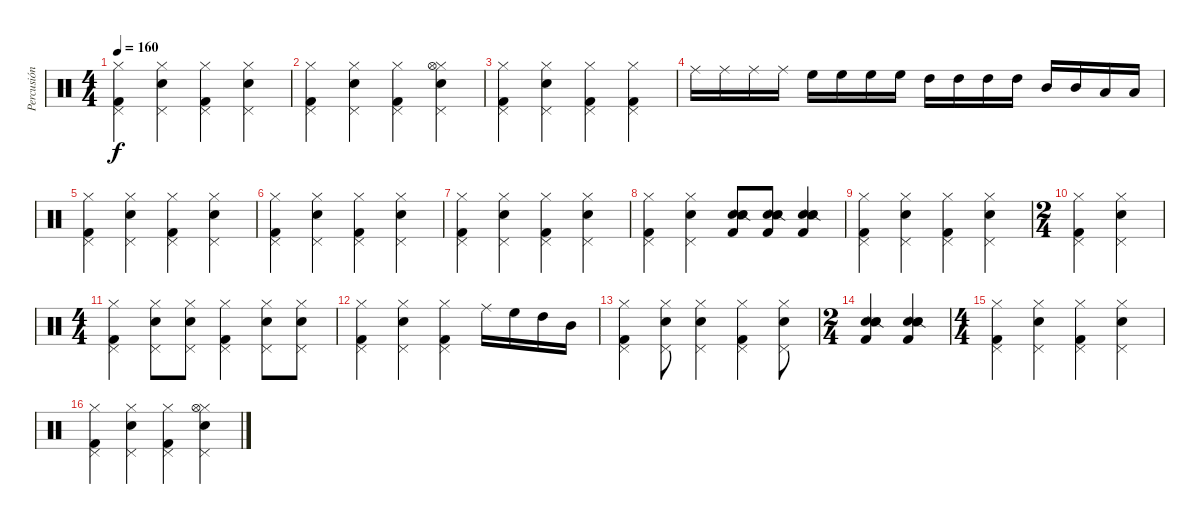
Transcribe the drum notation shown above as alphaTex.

\track ("Percusión" "Percusión") {instrument percussion}
\staff {score}
\articulation defaults
\ts (4 4)
\tempo 160
\clef neutral
\ks c
("Hi-Hat (closed)" "Kick (hit) 2" "Pedal Hi-Hat (hit)").4{dy f} ("Hi-Hat (closed)" "Snare (hit) 2" "Pedal Hi-Hat (hit)").4 ("Hi-Hat (closed)" "Kick (hit) 2" "Pedal Hi-Hat (hit)").4 ("Hi-Hat (closed)" "Snare (hit) 2" "Pedal Hi-Hat (hit)").4 |
("Hi-Hat (closed)" "Kick (hit) 2" "Pedal Hi-Hat (hit)").4 ("Hi-Hat (closed)" "Snare (hit) 2" "Pedal Hi-Hat (hit)").4 ("Hi-Hat (closed)" "Kick (hit) 2" "Pedal Hi-Hat (hit)").4 ("Hi-Hat (closed)" "Snare (hit) 2" "Pedal Hi-Hat (hit)" "Hi-Hat (open)").4 |
("Hi-Hat (closed)" "Kick (hit) 2" "Pedal Hi-Hat (hit)").4 ("Hi-Hat (closed)" "Snare (hit) 2" "Pedal Hi-Hat (hit)").4 ("Hi-Hat (closed)" "Kick (hit) 2" "Pedal Hi-Hat (hit)").4 ("Hi-Hat (closed)" "Kick (hit) 2" "Pedal Hi-Hat (hit)").4 |
"Ride (middle)".16 "Ride (middle)".16 "Ride (middle)".16 "Ride (middle)".16 "High Floor Tom (hit)".16 "High Floor Tom (hit)".16 "High Floor Tom (hit)".16 "High Floor Tom (hit)".16 "High Tom (hit)".16 "High Tom (hit)".16 "High Tom (hit)".16 "High Tom (hit)".16 "Mid Tom (hit)".16 "Mid Tom (hit)".16 "Low Tom (hit)".16 "Low Tom (hit)".16 |
("Hi-Hat (closed)" "Kick (hit) 2" "Pedal Hi-Hat (hit)").4 ("Hi-Hat (closed)" "Snare (hit) 2" "Pedal Hi-Hat (hit)").4 ("Hi-Hat (closed)" "Kick (hit) 2" "Pedal Hi-Hat (hit)").4 ("Hi-Hat (closed)" "Snare (hit) 2" "Pedal Hi-Hat (hit)").4 |
("Hi-Hat (closed)" "Kick (hit) 2" "Pedal Hi-Hat (hit)").4 ("Hi-Hat (closed)" "Snare (hit) 2" "Pedal Hi-Hat (hit)").4 ("Hi-Hat (closed)" "Kick (hit) 2" "Pedal Hi-Hat (hit)").4 ("Hi-Hat (closed)" "Snare (hit) 2" "Pedal Hi-Hat (hit)").4 |
("Hi-Hat (closed)" "Kick (hit) 2" "Pedal Hi-Hat (hit)").4 ("Hi-Hat (closed)" "Snare (hit) 2" "Pedal Hi-Hat (hit)").4 ("Hi-Hat (closed)" "Kick (hit) 2" "Pedal Hi-Hat (hit)").4 ("Hi-Hat (closed)" "Snare (hit) 2" "Pedal Hi-Hat (hit)").4 |
("Hi-Hat (closed)" "Kick (hit) 2" "Pedal Hi-Hat (hit)").4 ("Hi-Hat (closed)" "Snare (hit) 2" "Pedal Hi-Hat (hit)").4 ("Snare (hit) 2" "Kick (hit) 2" "Snare (side stick) 2" "Electric Snare (hit)").8 ("Snare (hit) 2" "Kick (hit) 2" "Snare (side stick) 2" "Electric Snare (hit)").8 ("Snare (hit) 2" "Kick (hit) 2" "Snare (side stick) 2" "Electric Snare (hit)").4 |
("Hi-Hat (closed)" "Kick (hit) 2" "Pedal Hi-Hat (hit)").4 ("Hi-Hat (closed)" "Snare (hit) 2" "Pedal Hi-Hat (hit)").4 ("Hi-Hat (closed)" "Kick (hit) 2" "Pedal Hi-Hat (hit)").4 ("Hi-Hat (closed)" "Snare (hit) 2" "Pedal Hi-Hat (hit)").4 |
\ts (2 4)
("Hi-Hat (closed)" "Kick (hit) 2" "Pedal Hi-Hat (hit)").4 ("Hi-Hat (closed)" "Snare (hit) 2" "Pedal Hi-Hat (hit)").4 |
\ts (4 4)
("Hi-Hat (closed)" "Kick (hit) 2" "Pedal Hi-Hat (hit)").4 ("Hi-Hat (closed)" "Snare (hit) 2" "Pedal Hi-Hat (hit)").8 ("Hi-Hat (closed)" "Snare (hit) 2" "Pedal Hi-Hat (hit)").8 ("Hi-Hat (closed)" "Kick (hit) 2" "Pedal Hi-Hat (hit)").4 ("Hi-Hat (closed)" "Snare (hit) 2" "Pedal Hi-Hat (hit)").8 ("Hi-Hat (closed)" "Snare (hit) 2" "Pedal Hi-Hat (hit)").8 |
("Hi-Hat (closed)" "Kick (hit) 2" "Pedal Hi-Hat (hit)").4 ("Hi-Hat (closed)" "Snare (hit) 2" "Pedal Hi-Hat (hit)").4 ("Hi-Hat (closed)" "Kick (hit) 2" "Pedal Hi-Hat (hit)").4 "Ride (middle)".16 "High Floor Tom (hit)".16 "High Tom (hit)".16 "Mid Tom (hit)".16 |
("Hi-Hat (closed)" "Kick (hit) 2" "Pedal Hi-Hat (hit)").4 ("Hi-Hat (closed)" "Snare (hit) 2" "Pedal Hi-Hat (hit)").8 ("Hi-Hat (closed)" "Snare (hit) 2" "Pedal Hi-Hat (hit)").4 ("Hi-Hat (closed)" "Kick (hit) 2" "Pedal Hi-Hat (hit)").4 ("Hi-Hat (closed)" "Snare (hit) 2" "Pedal Hi-Hat (hit)").8 |
\ts (2 4)
("Snare (hit) 2" "Kick (hit) 2" "Snare (side stick) 2" "Electric Snare (hit)").4 ("Snare (hit) 2" "Kick (hit) 2" "Snare (side stick) 2" "Electric Snare (hit)").4 |
\ts (4 4)
("Hi-Hat (closed)" "Kick (hit) 2" "Pedal Hi-Hat (hit)").4 ("Hi-Hat (closed)" "Snare (hit) 2" "Pedal Hi-Hat (hit)").4 ("Hi-Hat (closed)" "Kick (hit) 2" "Pedal Hi-Hat (hit)").4 ("Hi-Hat (closed)" "Snare (hit) 2" "Pedal Hi-Hat (hit)").4 |
("Hi-Hat (closed)" "Kick (hit) 2" "Pedal Hi-Hat (hit)").4 ("Hi-Hat (closed)" "Snare (hit) 2" "Pedal Hi-Hat (hit)").4 ("Hi-Hat (closed)" "Kick (hit) 2" "Pedal Hi-Hat (hit)").4 ("Hi-Hat (closed)" "Snare (hit) 2" "Pedal Hi-Hat (hit)" "Hi-Hat (open)").4
